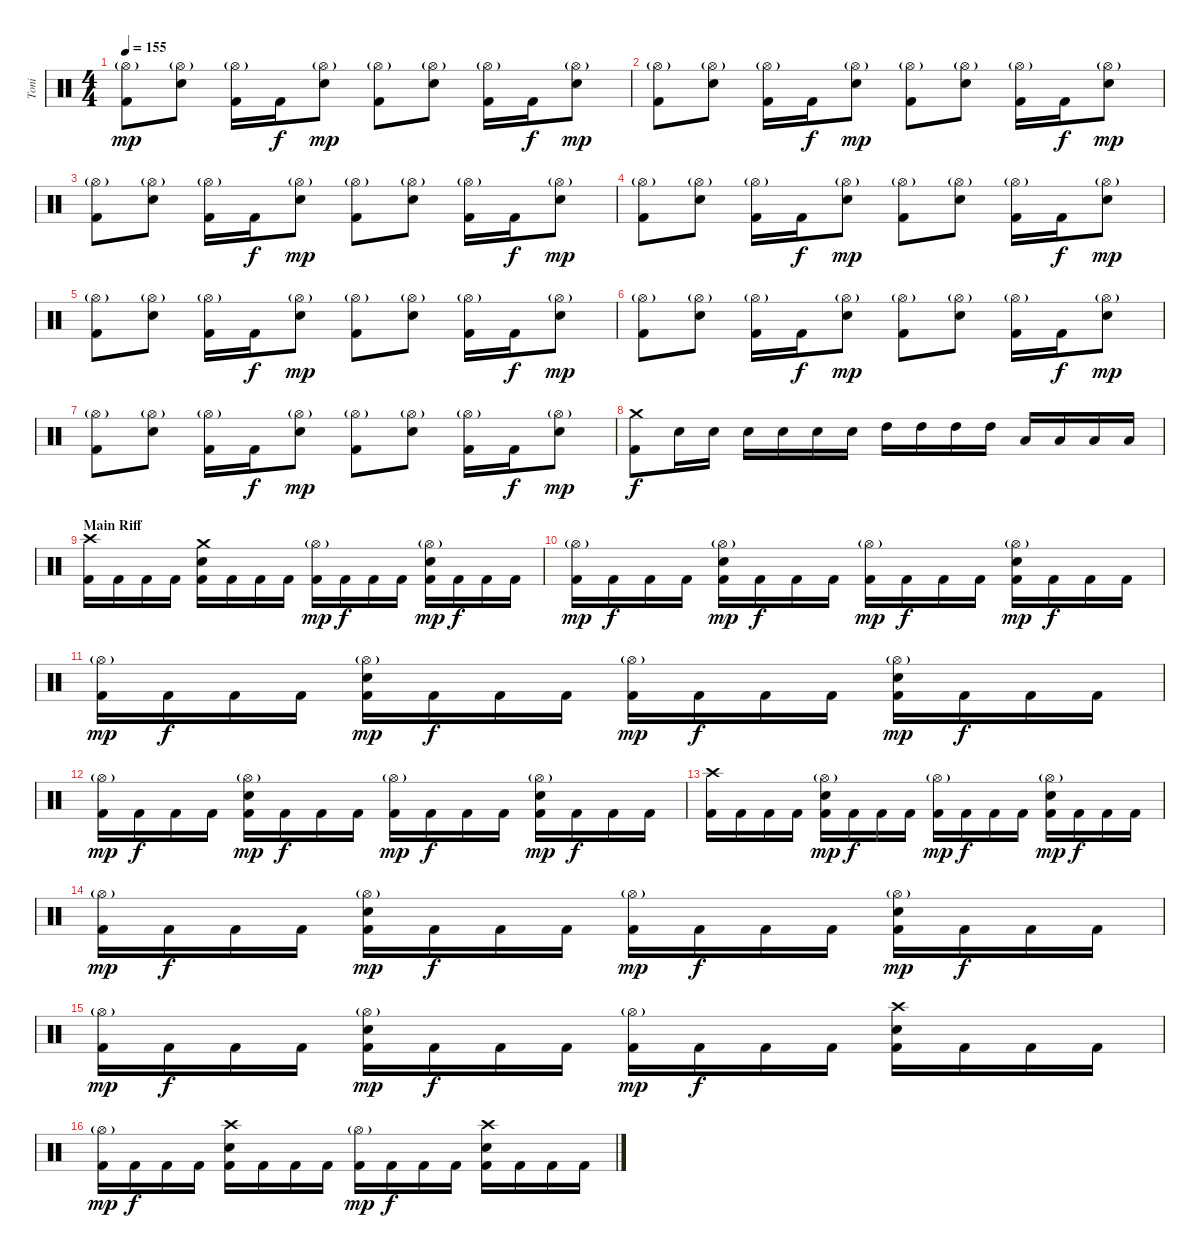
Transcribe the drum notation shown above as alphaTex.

\track ("Toni" "Toni") {instrument percussion}
\staff {score}
\articulation defaults
\ts (4 4)
\tempo 155
\clef neutral
\ks c
("Hi-Hat (open)"{g} "Kick (hit) 2").8{dy mp} ("Hi-Hat (open)"{g} "Electric Snare (hit)").8 ("Hi-Hat (open)"{g} "Kick (hit) 2").16 "Kick (hit) 2".16{dy f} ("Hi-Hat (open)"{g} "Electric Snare (hit)").8{dy mp} ("Hi-Hat (open)"{g} "Kick (hit) 2").8 ("Hi-Hat (open)"{g} "Electric Snare (hit)").8 ("Hi-Hat (open)"{g} "Kick (hit) 2").16 "Kick (hit) 2".16{dy f} ("Hi-Hat (open)"{g} "Electric Snare (hit)").8{dy mp} |
("Hi-Hat (open)"{g} "Kick (hit) 2").8 ("Hi-Hat (open)"{g} "Electric Snare (hit)").8 ("Hi-Hat (open)"{g} "Kick (hit) 2").16 "Kick (hit) 2".16{dy f} ("Hi-Hat (open)"{g} "Electric Snare (hit)").8{dy mp} ("Hi-Hat (open)"{g} "Kick (hit) 2").8 ("Hi-Hat (open)"{g} "Electric Snare (hit)").8 ("Hi-Hat (open)"{g} "Kick (hit) 2").16 "Kick (hit) 2".16{dy f} ("Hi-Hat (open)"{g} "Electric Snare (hit)").8{dy mp} |
("Hi-Hat (open)"{g} "Kick (hit) 2").8 ("Hi-Hat (open)"{g} "Electric Snare (hit)").8 ("Hi-Hat (open)"{g} "Kick (hit) 2").16 "Kick (hit) 2".16{dy f} ("Hi-Hat (open)"{g} "Electric Snare (hit)").8{dy mp} ("Hi-Hat (open)"{g} "Kick (hit) 2").8 ("Hi-Hat (open)"{g} "Electric Snare (hit)").8 ("Hi-Hat (open)"{g} "Kick (hit) 2").16 "Kick (hit) 2".16{dy f} ("Hi-Hat (open)"{g} "Electric Snare (hit)").8{dy mp} |
("Hi-Hat (open)"{g} "Kick (hit) 2").8 ("Hi-Hat (open)"{g} "Electric Snare (hit)").8 ("Hi-Hat (open)"{g} "Kick (hit) 2").16 "Kick (hit) 2".16{dy f} ("Hi-Hat (open)"{g} "Electric Snare (hit)").8{dy mp} ("Hi-Hat (open)"{g} "Kick (hit) 2").8 ("Hi-Hat (open)"{g} "Electric Snare (hit)").8 ("Hi-Hat (open)"{g} "Kick (hit) 2").16 "Kick (hit) 2".16{dy f} ("Hi-Hat (open)"{g} "Electric Snare (hit)").8{dy mp} |
("Hi-Hat (open)"{g} "Kick (hit) 2").8 ("Hi-Hat (open)"{g} "Electric Snare (hit)").8 ("Hi-Hat (open)"{g} "Kick (hit) 2").16 "Kick (hit) 2".16{dy f} ("Hi-Hat (open)"{g} "Electric Snare (hit)").8{dy mp} ("Hi-Hat (open)"{g} "Kick (hit) 2").8 ("Hi-Hat (open)"{g} "Electric Snare (hit)").8 ("Hi-Hat (open)"{g} "Kick (hit) 2").16 "Kick (hit) 2".16{dy f} ("Hi-Hat (open)"{g} "Electric Snare (hit)").8{dy mp} |
("Hi-Hat (open)"{g} "Kick (hit) 2").8 ("Hi-Hat (open)"{g} "Electric Snare (hit)").8 ("Hi-Hat (open)"{g} "Kick (hit) 2").16 "Kick (hit) 2".16{dy f} ("Hi-Hat (open)"{g} "Electric Snare (hit)").8{dy mp} ("Hi-Hat (open)"{g} "Kick (hit) 2").8 ("Hi-Hat (open)"{g} "Electric Snare (hit)").8 ("Hi-Hat (open)"{g} "Kick (hit) 2").16 "Kick (hit) 2".16{dy f} ("Hi-Hat (open)"{g} "Electric Snare (hit)").8{dy mp} |
("Hi-Hat (open)"{g} "Kick (hit) 2").8 ("Hi-Hat (open)"{g} "Electric Snare (hit)").8 ("Hi-Hat (open)"{g} "Kick (hit) 2").16 "Kick (hit) 2".16{dy f} ("Hi-Hat (open)"{g} "Electric Snare (hit)").8{dy mp} ("Hi-Hat (open)"{g} "Kick (hit) 2").8 ("Hi-Hat (open)"{g} "Electric Snare (hit)").8 ("Hi-Hat (open)"{g} "Kick (hit) 2").16 "Kick (hit) 2".16{dy f} ("Hi-Hat (open)"{g} "Electric Snare (hit)").8{dy mp} |
("Crash medium (hit)" "Kick (hit) 2").8{dy f} "Electric Snare (hit)".16 "Electric Snare (hit)".16 "Electric Snare (hit)".16 "Electric Snare (hit)".16 "Electric Snare (hit)".16 "Electric Snare (hit)".16 "High Tom (hit)".16 "High Tom (hit)".16 "High Tom (hit)".16 "High Tom (hit)".16 "Low Tom (hit)".16 "Low Tom (hit)".16 "Low Tom (hit)".16 "Low Tom (hit)".16 |
\section ("" "Main Riff")
("Crash high (hit)" "Kick (hit) 2").16 "Kick (hit) 2".16 "Kick (hit) 2".16 "Kick (hit) 2".16 ("Crash medium (hit)" "Electric Snare (hit)" "Kick (hit) 2").16 "Kick (hit) 2".16 "Kick (hit) 2".16 "Kick (hit) 2".16 ("Hi-Hat (open)"{g} "Kick (hit) 2").16{dy mp} "Kick (hit) 2".16{dy f} "Kick (hit) 2".16 "Kick (hit) 2".16 ("Hi-Hat (open)"{g} "Electric Snare (hit)" "Kick (hit) 2").16{dy mp} "Kick (hit) 2".16{dy f} "Kick (hit) 2".16 "Kick (hit) 2".16 |
("Hi-Hat (open)"{g} "Kick (hit) 2").16{dy mp} "Kick (hit) 2".16{dy f} "Kick (hit) 2".16 "Kick (hit) 2".16 ("Hi-Hat (open)"{g} "Electric Snare (hit)" "Kick (hit) 2").16{dy mp} "Kick (hit) 2".16{dy f} "Kick (hit) 2".16 "Kick (hit) 2".16 ("Hi-Hat (open)"{g} "Kick (hit) 2").16{dy mp} "Kick (hit) 2".16{dy f} "Kick (hit) 2".16 "Kick (hit) 2".16 ("Hi-Hat (open)"{g} "Electric Snare (hit)" "Kick (hit) 2").16{dy mp} "Kick (hit) 2".16{dy f} "Kick (hit) 2".16 "Kick (hit) 2".16 |
("Hi-Hat (open)"{g} "Kick (hit) 2").16{dy mp} "Kick (hit) 2".16{dy f} "Kick (hit) 2".16 "Kick (hit) 2".16 ("Hi-Hat (open)"{g} "Electric Snare (hit)" "Kick (hit) 2").16{dy mp} "Kick (hit) 2".16{dy f} "Kick (hit) 2".16 "Kick (hit) 2".16 ("Hi-Hat (open)"{g} "Kick (hit) 2").16{dy mp} "Kick (hit) 2".16{dy f} "Kick (hit) 2".16 "Kick (hit) 2".16 ("Hi-Hat (open)"{g} "Electric Snare (hit)" "Kick (hit) 2").16{dy mp} "Kick (hit) 2".16{dy f} "Kick (hit) 2".16 "Kick (hit) 2".16 |
("Hi-Hat (open)"{g} "Kick (hit) 2").16{dy mp} "Kick (hit) 2".16{dy f} "Kick (hit) 2".16 "Kick (hit) 2".16 ("Hi-Hat (open)"{g} "Electric Snare (hit)" "Kick (hit) 2").16{dy mp} "Kick (hit) 2".16{dy f} "Kick (hit) 2".16 "Kick (hit) 2".16 ("Hi-Hat (open)"{g} "Kick (hit) 2").16{dy mp} "Kick (hit) 2".16{dy f} "Kick (hit) 2".16 "Kick (hit) 2".16 ("Hi-Hat (open)"{g} "Electric Snare (hit)" "Kick (hit) 2").16{dy mp} "Kick (hit) 2".16{dy f} "Kick (hit) 2".16 "Kick (hit) 2".16 |
("Crash high (hit)" "Kick (hit) 2").16 "Kick (hit) 2".16 "Kick (hit) 2".16 "Kick (hit) 2".16 ("Hi-Hat (open)"{g} "Electric Snare (hit)" "Kick (hit) 2").16{dy mp} "Kick (hit) 2".16{dy f} "Kick (hit) 2".16 "Kick (hit) 2".16 ("Hi-Hat (open)"{g} "Kick (hit) 2").16{dy mp} "Kick (hit) 2".16{dy f} "Kick (hit) 2".16 "Kick (hit) 2".16 ("Hi-Hat (open)"{g} "Electric Snare (hit)" "Kick (hit) 2").16{dy mp} "Kick (hit) 2".16{dy f} "Kick (hit) 2".16 "Kick (hit) 2".16 |
("Hi-Hat (open)"{g} "Kick (hit) 2").16{dy mp} "Kick (hit) 2".16{dy f} "Kick (hit) 2".16 "Kick (hit) 2".16 ("Hi-Hat (open)"{g} "Electric Snare (hit)" "Kick (hit) 2").16{dy mp} "Kick (hit) 2".16{dy f} "Kick (hit) 2".16 "Kick (hit) 2".16 ("Hi-Hat (open)"{g} "Kick (hit) 2").16{dy mp} "Kick (hit) 2".16{dy f} "Kick (hit) 2".16 "Kick (hit) 2".16 ("Hi-Hat (open)"{g} "Electric Snare (hit)" "Kick (hit) 2").16{dy mp} "Kick (hit) 2".16{dy f} "Kick (hit) 2".16 "Kick (hit) 2".16 |
("Hi-Hat (open)"{g} "Kick (hit) 2").16{dy mp} "Kick (hit) 2".16{dy f} "Kick (hit) 2".16 "Kick (hit) 2".16 ("Hi-Hat (open)"{g} "Electric Snare (hit)" "Kick (hit) 2").16{dy mp} "Kick (hit) 2".16{dy f} "Kick (hit) 2".16 "Kick (hit) 2".16 ("Hi-Hat (open)"{g} "Kick (hit) 2").16{dy mp} "Kick (hit) 2".16{dy f} "Kick (hit) 2".16 "Kick (hit) 2".16 ("Crash high (hit)" "Electric Snare (hit)" "Kick (hit) 2").16 "Kick (hit) 2".16 "Kick (hit) 2".16 "Kick (hit) 2".16 |
("Hi-Hat (open)"{g} "Kick (hit) 2").16{dy mp} "Kick (hit) 2".16{dy f} "Kick (hit) 2".16 "Kick (hit) 2".16 ("Crash high (hit)" "Electric Snare (hit)" "Kick (hit) 2").16 "Kick (hit) 2".16 "Kick (hit) 2".16 "Kick (hit) 2".16 ("Hi-Hat (open)"{g} "Kick (hit) 2").16{dy mp} "Kick (hit) 2".16{dy f} "Kick (hit) 2".16 "Kick (hit) 2".16 ("Crash high (hit)" "Electric Snare (hit)" "Kick (hit) 2").16 "Kick (hit) 2".16 "Kick (hit) 2".16 "Kick (hit) 2".16
